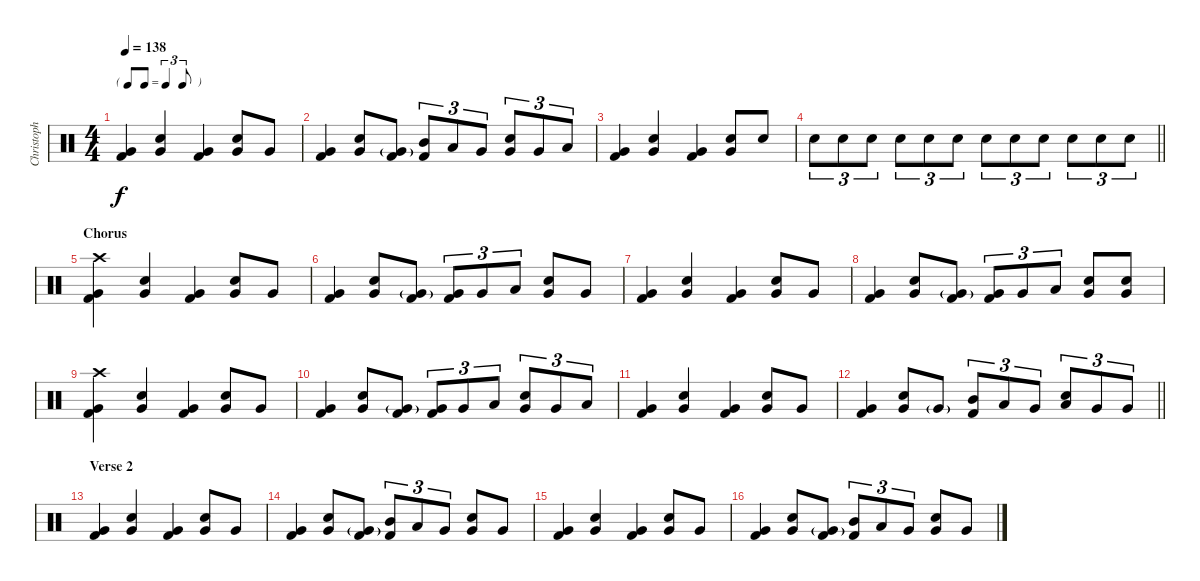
\track ("Christoph Schneider" "Christoph ") {instrument percussion}
\staff {score}
\articulation defaults
\ts (4 4)
\tf triplet8th
\tempo 138
\clef neutral
\ks c
("Very Low Tom (hit)" "Kick (hit) 2").4{dy f} ("Very Low Tom (hit)" "Electric Snare (hit)").4 ("Very Low Tom (hit)" "Kick (hit) 2").4 ("Very Low Tom (hit)" "Electric Snare (hit)").8 "Very Low Tom (hit)".8 |
("Very Low Tom (hit)" "Kick (hit) 2").4 ("Very Low Tom (hit)" "Electric Snare (hit)").8 ("Very Low Tom (hit)"{g} "Kick (hit) 2").8 ("Mid Tom (hit)" "Kick (hit) 2").8{tu (3 2)} "Low Tom (hit)".8{tu (3 2)} "Very Low Tom (hit)".8{tu (3 2)} ("Very Low Tom (hit)" "Electric Snare (hit)").8{tu (3 2)} "Very Low Tom (hit)".8{tu (3 2)} "Low Tom (hit)".8{tu (3 2)} |
("Very Low Tom (hit)" "Kick (hit) 2").4 ("Very Low Tom (hit)" "Electric Snare (hit)").4 ("Very Low Tom (hit)" "Kick (hit) 2").4 ("Very Low Tom (hit)" "Electric Snare (hit)").8 "Electric Snare (hit)".8 |
\barLineRight lightlight "Electric Snare (hit)".8{tu (3 2)} "Electric Snare (hit)".8{tu (3 2)} "Electric Snare (hit)".8{tu (3 2)} "Electric Snare (hit)".8{tu (3 2)} "Electric Snare (hit)".8{tu (3 2)} "Electric Snare (hit)".8{tu (3 2)} "Electric Snare (hit)".8{tu (3 2)} "Electric Snare (hit)".8{tu (3 2)} "Electric Snare (hit)".8{tu (3 2)} "Electric Snare (hit)".8{tu (3 2)} "Electric Snare (hit)".8{tu (3 2)} "Electric Snare (hit)".8{tu (3 2)}
|
\section ("" "Chorus")
("Crash high (hit)" "Very Low Tom (hit)" "Kick (hit) 2").4 ("Very Low Tom (hit)" "Electric Snare (hit)").4 ("Very Low Tom (hit)" "Kick (hit) 2").4 ("Very Low Tom (hit)" "Electric Snare (hit)").8 "Very Low Tom (hit)".8 |
("Very Low Tom (hit)" "Kick (hit) 2").4 ("Very Low Tom (hit)" "Electric Snare (hit)").8 ("Very Low Tom (hit)"{g} "Kick (hit) 2").8 ("Very Low Tom (hit)" "Kick (hit) 2").8{tu (3 2)} "Very Low Tom (hit)".8{tu (3 2)} "Low Tom (hit)".8{tu (3 2)} ("Very Low Tom (hit)" "Electric Snare (hit)").8 "Very Low Tom (hit)".8 |
("Very Low Tom (hit)" "Kick (hit) 2").4 ("Very Low Tom (hit)" "Electric Snare (hit)").4 ("Very Low Tom (hit)" "Kick (hit) 2").4 ("Very Low Tom (hit)" "Electric Snare (hit)").8 "Very Low Tom (hit)".8 |
("Very Low Tom (hit)" "Kick (hit) 2").4 ("Very Low Tom (hit)" "Electric Snare (hit)").8 ("Very Low Tom (hit)"{g} "Kick (hit) 2").8 ("Very Low Tom (hit)" "Kick (hit) 2").8{tu (3 2)} "Very Low Tom (hit)".8{tu (3 2)} "Low Tom (hit)".8{tu (3 2)} ("Very Low Tom (hit)" "Electric Snare (hit)").8 ("Very Low Tom (hit)" "Electric Snare (hit)").8 |
("Crash high (hit)" "Very Low Tom (hit)" "Kick (hit) 2").4 ("Very Low Tom (hit)" "Electric Snare (hit)").4 ("Very Low Tom (hit)" "Kick (hit) 2").4 ("Very Low Tom (hit)" "Electric Snare (hit)").8 "Very Low Tom (hit)".8 |
("Very Low Tom (hit)" "Kick (hit) 2").4 ("Very Low Tom (hit)" "Electric Snare (hit)").8 ("Very Low Tom (hit)"{g} "Kick (hit) 2").8 ("Very Low Tom (hit)" "Kick (hit) 2").8{tu (3 2)} "Very Low Tom (hit)".8{tu (3 2)} "Low Tom (hit)".8{tu (3 2)} ("Very Low Tom (hit)" "Electric Snare (hit)").8{tu (3 2)} "Very Low Tom (hit)".8{tu (3 2)} "Low Tom (hit)".8{tu (3 2)} |
("Very Low Tom (hit)" "Kick (hit) 2").4 ("Very Low Tom (hit)" "Electric Snare (hit)").4 ("Very Low Tom (hit)" "Kick (hit) 2").4 ("Very Low Tom (hit)" "Electric Snare (hit)").8 "Very Low Tom (hit)".8 |
\barLineRight lightlight
("Very Low Tom (hit)" "Kick (hit) 2").4 ("Very Low Tom (hit)" "Electric Snare (hit)").8 "Very Low Tom (hit)"{g}.8 ("Mid Tom (hit)" "Kick (hit) 2").8{tu (3 2)} "Low Tom (hit)".8{tu (3 2)} "Very Low Tom (hit)".8{tu (3 2)} ("Low Tom (hit)" "Electric Snare (hit)").8{tu (3 2)} "Very Low Tom (hit)".8{tu (3 2)} "Very Low Tom (hit)".8{tu (3 2)} |
\section ("" "Verse 2")
("Very Low Tom (hit)" "Kick (hit) 2").4 ("Very Low Tom (hit)" "Electric Snare (hit)").4 ("Very Low Tom (hit)" "Kick (hit) 2").4 ("Very Low Tom (hit)" "Electric Snare (hit)").8 "Very Low Tom (hit)".8 |
("Very Low Tom (hit)" "Kick (hit) 2").4 ("Very Low Tom (hit)" "Electric Snare (hit)").8 ("Very Low Tom (hit)"{g} "Kick (hit) 2").8 ("Mid Tom (hit)" "Kick (hit) 2").8{tu (3 2)} "Low Tom (hit)".8{tu (3 2)} "Very Low Tom (hit)".8{tu (3 2)} ("Very Low Tom (hit)" "Electric Snare (hit)").8 "Very Low Tom (hit)".8 |
("Very Low Tom (hit)" "Kick (hit) 2").4 ("Very Low Tom (hit)" "Electric Snare (hit)").4 ("Very Low Tom (hit)" "Kick (hit) 2").4 ("Very Low Tom (hit)" "Electric Snare (hit)").8 "Very Low Tom (hit)".8 |
("Very Low Tom (hit)" "Kick (hit) 2").4 ("Very Low Tom (hit)" "Electric Snare (hit)").8 ("Very Low Tom (hit)"{g} "Kick (hit) 2").8 ("Mid Tom (hit)" "Kick (hit) 2").8{tu (3 2)} "Low Tom (hit)".8{tu (3 2)} "Very Low Tom (hit)".8{tu (3 2)} ("Very Low Tom (hit)" "Electric Snare (hit)").8 "Very Low Tom (hit)".8
